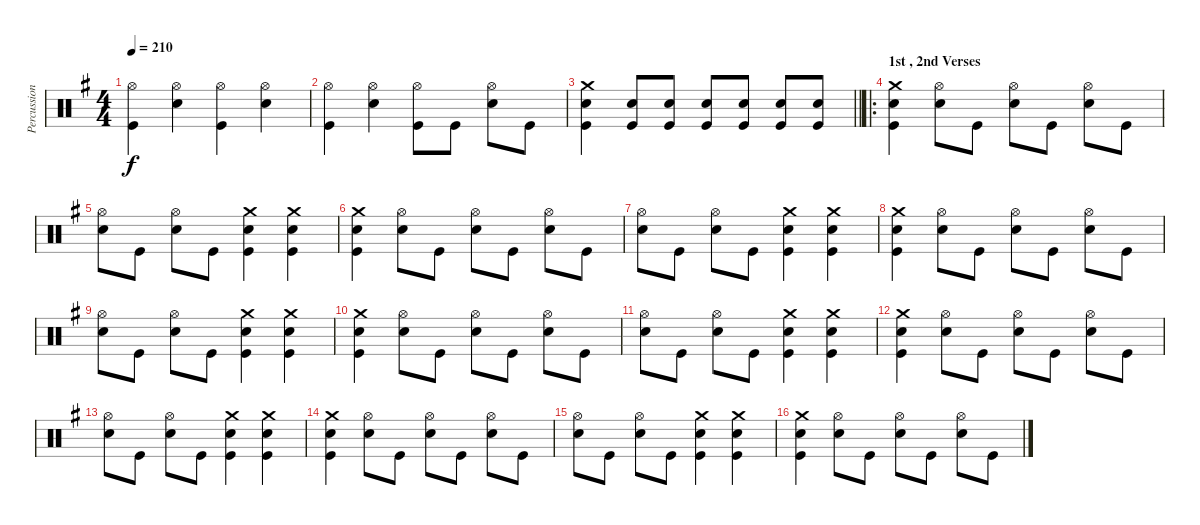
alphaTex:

\track ("Percussion" "Percussion") {instrument percussion}
\staff {score}
\articulation defaults
\ts (4 4)
\tempo 210
\clef neutral
\ks g
("Hi-Hat (open)" "Kick (hit)").4{dy f} ("Hi-Hat (open)" "Snare (hit) 2").4 ("Hi-Hat (open)" "Kick (hit)").4 ("Hi-Hat (open)" "Snare (hit) 2").4 |
("Hi-Hat (open)" "Kick (hit)").4 ("Hi-Hat (open)" "Snare (hit) 2").4 ("Hi-Hat (open)" "Kick (hit)").8 "Kick (hit)".8 ("Hi-Hat (open)" "Snare (hit) 2").8 "Kick (hit)".8 |
\barLineRight lightlight
("Crash medium (hit)" "Snare (hit) 2" "Kick (hit)").4 ("Snare (hit) 2" "Kick (hit)").8 ("Snare (hit) 2" "Kick (hit)").8 ("Snare (hit) 2" "Kick (hit)").8 ("Snare (hit) 2" "Kick (hit)").8 ("Snare (hit) 2" "Kick (hit)").8 ("Snare (hit) 2" "Kick (hit)").8 |
\ro
\section ("" "1st , 2nd Verses")
("Crash medium (hit)" "Snare (hit) 2" "Kick (hit)").4 ("Hi-Hat (open)" "Snare (hit) 2").8 "Kick (hit)".8 ("Hi-Hat (open)" "Snare (hit) 2").8 "Kick (hit)".8 ("Hi-Hat (open)" "Snare (hit) 2").8 "Kick (hit)".8 |
("Hi-Hat (open)" "Snare (hit) 2").8 "Kick (hit)".8 ("Hi-Hat (open)" "Snare (hit) 2").8 "Kick (hit)".8 ("Crash medium (hit)" "Snare (hit) 2" "Kick (hit)").4 ("Crash medium (hit)" "Snare (hit) 2" "Kick (hit)").4 |
("Crash medium (hit)" "Snare (hit) 2" "Kick (hit)").4 ("Hi-Hat (open)" "Snare (hit) 2").8 "Kick (hit)".8 ("Hi-Hat (open)" "Snare (hit) 2").8 "Kick (hit)".8 ("Hi-Hat (open)" "Snare (hit) 2").8 "Kick (hit)".8 |
("Hi-Hat (open)" "Snare (hit) 2").8 "Kick (hit)".8 ("Hi-Hat (open)" "Snare (hit) 2").8 "Kick (hit)".8 ("Crash medium (hit)" "Snare (hit) 2" "Kick (hit)").4 ("Crash medium (hit)" "Snare (hit) 2" "Kick (hit)").4 |
("Crash medium (hit)" "Snare (hit) 2" "Kick (hit)").4 ("Hi-Hat (open)" "Snare (hit) 2").8 "Kick (hit)".8 ("Hi-Hat (open)" "Snare (hit) 2").8 "Kick (hit)".8 ("Hi-Hat (open)" "Snare (hit) 2").8 "Kick (hit)".8 |
("Hi-Hat (open)" "Snare (hit) 2").8 "Kick (hit)".8 ("Hi-Hat (open)" "Snare (hit) 2").8 "Kick (hit)".8 ("Crash medium (hit)" "Snare (hit) 2" "Kick (hit)").4 ("Crash medium (hit)" "Snare (hit) 2" "Kick (hit)").4 |
("Crash medium (hit)" "Snare (hit) 2" "Kick (hit)").4 ("Hi-Hat (open)" "Snare (hit) 2").8 "Kick (hit)".8 ("Hi-Hat (open)" "Snare (hit) 2").8 "Kick (hit)".8 ("Hi-Hat (open)" "Snare (hit) 2").8 "Kick (hit)".8 |
("Hi-Hat (open)" "Snare (hit) 2").8 "Kick (hit)".8 ("Hi-Hat (open)" "Snare (hit) 2").8 "Kick (hit)".8 ("Crash medium (hit)" "Snare (hit) 2" "Kick (hit)").4 ("Crash medium (hit)" "Snare (hit) 2" "Kick (hit)").4 |
("Crash medium (hit)" "Snare (hit) 2" "Kick (hit)").4 ("Hi-Hat (open)" "Snare (hit) 2").8 "Kick (hit)".8 ("Hi-Hat (open)" "Snare (hit) 2").8 "Kick (hit)".8 ("Hi-Hat (open)" "Snare (hit) 2").8 "Kick (hit)".8 |
("Hi-Hat (open)" "Snare (hit) 2").8 "Kick (hit)".8 ("Hi-Hat (open)" "Snare (hit) 2").8 "Kick (hit)".8 ("Crash medium (hit)" "Snare (hit) 2" "Kick (hit)").4 ("Crash medium (hit)" "Snare (hit) 2" "Kick (hit)").4 |
("Crash medium (hit)" "Snare (hit) 2" "Kick (hit)").4 ("Hi-Hat (open)" "Snare (hit) 2").8 "Kick (hit)".8 ("Hi-Hat (open)" "Snare (hit) 2").8 "Kick (hit)".8 ("Hi-Hat (open)" "Snare (hit) 2").8 "Kick (hit)".8 |
("Hi-Hat (open)" "Snare (hit) 2").8 "Kick (hit)".8 ("Hi-Hat (open)" "Snare (hit) 2").8 "Kick (hit)".8 ("Crash medium (hit)" "Snare (hit) 2" "Kick (hit)").4 ("Crash medium (hit)" "Snare (hit) 2" "Kick (hit)").4 |
("Crash medium (hit)" "Snare (hit) 2" "Kick (hit)").4 ("Hi-Hat (open)" "Snare (hit) 2").8 "Kick (hit)".8 ("Hi-Hat (open)" "Snare (hit) 2").8 "Kick (hit)".8 ("Hi-Hat (open)" "Snare (hit) 2").8 "Kick (hit)".8
